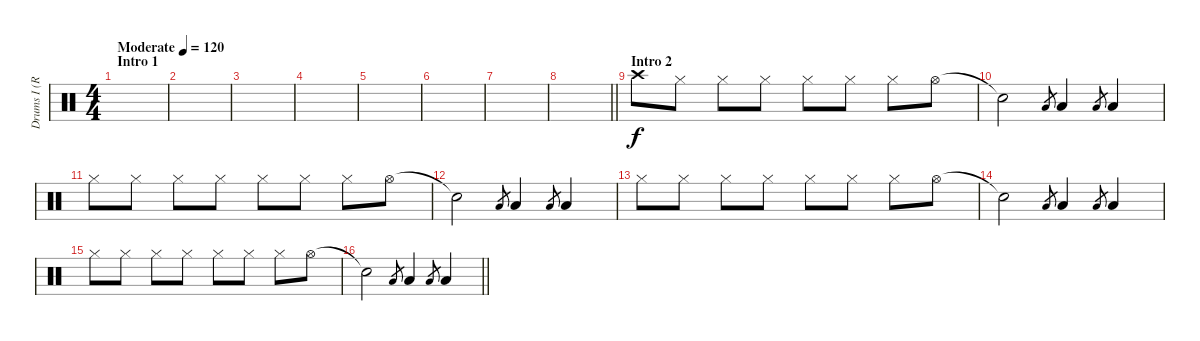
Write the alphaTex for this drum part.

\track ("Drums I (Ruka)" "Drums I (R") {instrument percussion}
\staff {score}
\articulation defaults
\ts (4 4)
\section ("" "Intro 1")
\tempo (120 "Moderate")
\clef neutral
\ks c
|
|
|
|
|
|
|
\barLineRight lightlight
|
\section ("" "Intro 2")
"Crash high (hit)".8 "Hi-Hat (closed)".8 "Hi-Hat (closed)".8 "Hi-Hat (closed)".8 "Hi-Hat (closed)".8 "Hi-Hat (closed)".8 "Hi-Hat (closed)".8 "Hi-Hat (open)".8 |
"Snare (hit)"{t}.2 "Low Tom (hit)".8{gr} "Low Tom (hit)".4 "Low Tom (hit)".8{gr} "Low Tom (hit)".4 |
"Hi-Hat (closed)".8 "Hi-Hat (closed)".8 "Hi-Hat (closed)".8 "Hi-Hat (closed)".8 "Hi-Hat (closed)".8 "Hi-Hat (closed)".8 "Hi-Hat (closed)".8 "Hi-Hat (open)".8 |
"Snare (hit)"{t}.2 "Low Tom (hit)".8{gr} "Low Tom (hit)".4 "Low Tom (hit)".8{gr} "Low Tom (hit)".4 |
"Hi-Hat (closed)".8 "Hi-Hat (closed)".8 "Hi-Hat (closed)".8 "Hi-Hat (closed)".8 "Hi-Hat (closed)".8 "Hi-Hat (closed)".8 "Hi-Hat (closed)".8 "Hi-Hat (open)".8 |
"Snare (hit)"{t}.2 "Low Tom (hit)".8{gr} "Low Tom (hit)".4 "Low Tom (hit)".8{gr} "Low Tom (hit)".4 |
"Hi-Hat (closed)".8 "Hi-Hat (closed)".8 "Hi-Hat (closed)".8 "Hi-Hat (closed)".8 "Hi-Hat (closed)".8 "Hi-Hat (closed)".8 "Hi-Hat (closed)".8 "Hi-Hat (open)".8 |
\barLineRight lightlight "Snare (hit)"{t}.2 "Low Tom (hit)".8{gr} "Low Tom (hit)".4 "Low Tom (hit)".8{gr} "Low Tom (hit)".4
